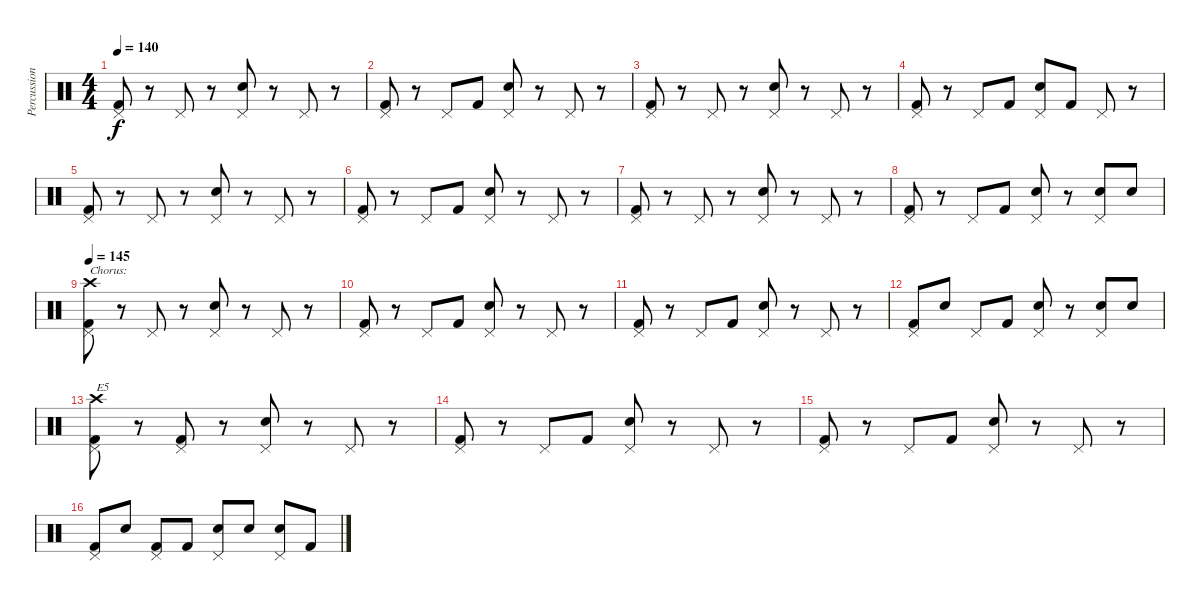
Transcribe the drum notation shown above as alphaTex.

\track ("Percussion" "Percussion") {instrument percussion}
\staff {score}
\articulation defaults
\ts (4 4)
\tempo 140
\clef neutral
\ks c
("Pedal Hi-Hat (hit)" "Kick (hit) 2").8{dy f} r.8 "Pedal Hi-Hat (hit)".8 r.8 ("Pedal Hi-Hat (hit)" "Electric Snare (hit)").8 r.8 "Pedal Hi-Hat (hit)".8 r.8 |
("Pedal Hi-Hat (hit)" "Kick (hit) 2").8 r.8 "Pedal Hi-Hat (hit)".8 "Kick (hit) 2".8 ("Pedal Hi-Hat (hit)" "Electric Snare (hit)").8 r.8 "Pedal Hi-Hat (hit)".8 r.8 |
("Pedal Hi-Hat (hit)" "Kick (hit) 2").8 r.8 "Pedal Hi-Hat (hit)".8 r.8 ("Pedal Hi-Hat (hit)" "Electric Snare (hit)").8 r.8 "Pedal Hi-Hat (hit)".8 r.8 |
("Pedal Hi-Hat (hit)" "Kick (hit) 2").8 r.8 "Pedal Hi-Hat (hit)".8 "Kick (hit) 2".8 ("Pedal Hi-Hat (hit)" "Electric Snare (hit)").8 "Kick (hit) 2".8 "Pedal Hi-Hat (hit)".8 r.8 |
("Pedal Hi-Hat (hit)" "Kick (hit) 2").8 r.8 "Pedal Hi-Hat (hit)".8 r.8 ("Pedal Hi-Hat (hit)" "Electric Snare (hit)").8 r.8 "Pedal Hi-Hat (hit)".8 r.8 |
("Pedal Hi-Hat (hit)" "Kick (hit) 2").8 r.8 "Pedal Hi-Hat (hit)".8 "Kick (hit) 2".8 ("Pedal Hi-Hat (hit)" "Electric Snare (hit)").8 r.8 "Pedal Hi-Hat (hit)".8 r.8 |
("Pedal Hi-Hat (hit)" "Kick (hit) 2").8 r.8 "Pedal Hi-Hat (hit)".8 r.8 ("Pedal Hi-Hat (hit)" "Electric Snare (hit)").8 r.8 "Pedal Hi-Hat (hit)".8 r.8 |
("Pedal Hi-Hat (hit)" "Kick (hit) 2").8 r.8 "Pedal Hi-Hat (hit)".8 "Kick (hit) 2".8 ("Pedal Hi-Hat (hit)" "Electric Snare (hit)").8 r.8 ("Pedal Hi-Hat (hit)" "Electric Snare (hit)").8 "Electric Snare (hit)".8 |
\tempo 145
("Pedal Hi-Hat (hit)" "Crash high (hit)" "Kick (hit) 2").8{txt "Chorus:"} r.8 "Pedal Hi-Hat (hit)".8 r.8 ("Pedal Hi-Hat (hit)" "Electric Snare (hit)").8 r.8 "Pedal Hi-Hat (hit)".8 r.8 |
("Pedal Hi-Hat (hit)" "Kick (hit) 2").8 r.8 "Pedal Hi-Hat (hit)".8 "Kick (hit) 2".8 ("Pedal Hi-Hat (hit)" "Electric Snare (hit)").8 r.8 "Pedal Hi-Hat (hit)".8 r.8 |
("Pedal Hi-Hat (hit)" "Kick (hit) 2").8 r.8 "Pedal Hi-Hat (hit)".8 "Kick (hit) 2".8 ("Pedal Hi-Hat (hit)" "Electric Snare (hit)").8 r.8 "Pedal Hi-Hat (hit)".8 r.8 |
("Pedal Hi-Hat (hit)" "Kick (hit) 2").8 "Electric Snare (hit)".8 "Pedal Hi-Hat (hit)".8 "Kick (hit) 2".8 ("Pedal Hi-Hat (hit)" "Electric Snare (hit)").8 r.8 ("Pedal Hi-Hat (hit)" "Electric Snare (hit)").8 "Electric Snare (hit)".8 |
("Pedal Hi-Hat (hit)" "Crash high (hit)" "Kick (hit) 2").8{txt "E5"} r.8 ("Pedal Hi-Hat (hit)" "Kick (hit) 2").8 r.8 ("Pedal Hi-Hat (hit)" "Electric Snare (hit)").8 r.8 "Pedal Hi-Hat (hit)".8 r.8 |
("Pedal Hi-Hat (hit)" "Kick (hit) 2").8 r.8 "Pedal Hi-Hat (hit)".8 "Kick (hit) 2".8 ("Pedal Hi-Hat (hit)" "Electric Snare (hit)").8 r.8 "Pedal Hi-Hat (hit)".8 r.8 |
("Pedal Hi-Hat (hit)" "Kick (hit) 2").8 r.8 "Pedal Hi-Hat (hit)".8 "Kick (hit) 2".8 ("Pedal Hi-Hat (hit)" "Electric Snare (hit)").8 r.8 "Pedal Hi-Hat (hit)".8 r.8 |
("Pedal Hi-Hat (hit)" "Kick (hit) 2").8 "Electric Snare (hit)".8 ("Pedal Hi-Hat (hit)" "Kick (hit) 2").8 "Kick (hit) 2".8 ("Pedal Hi-Hat (hit)" "Electric Snare (hit)").8 "Electric Snare (hit)".8 ("Pedal Hi-Hat (hit)" "Electric Snare (hit)").8 "Kick (hit) 2".8
